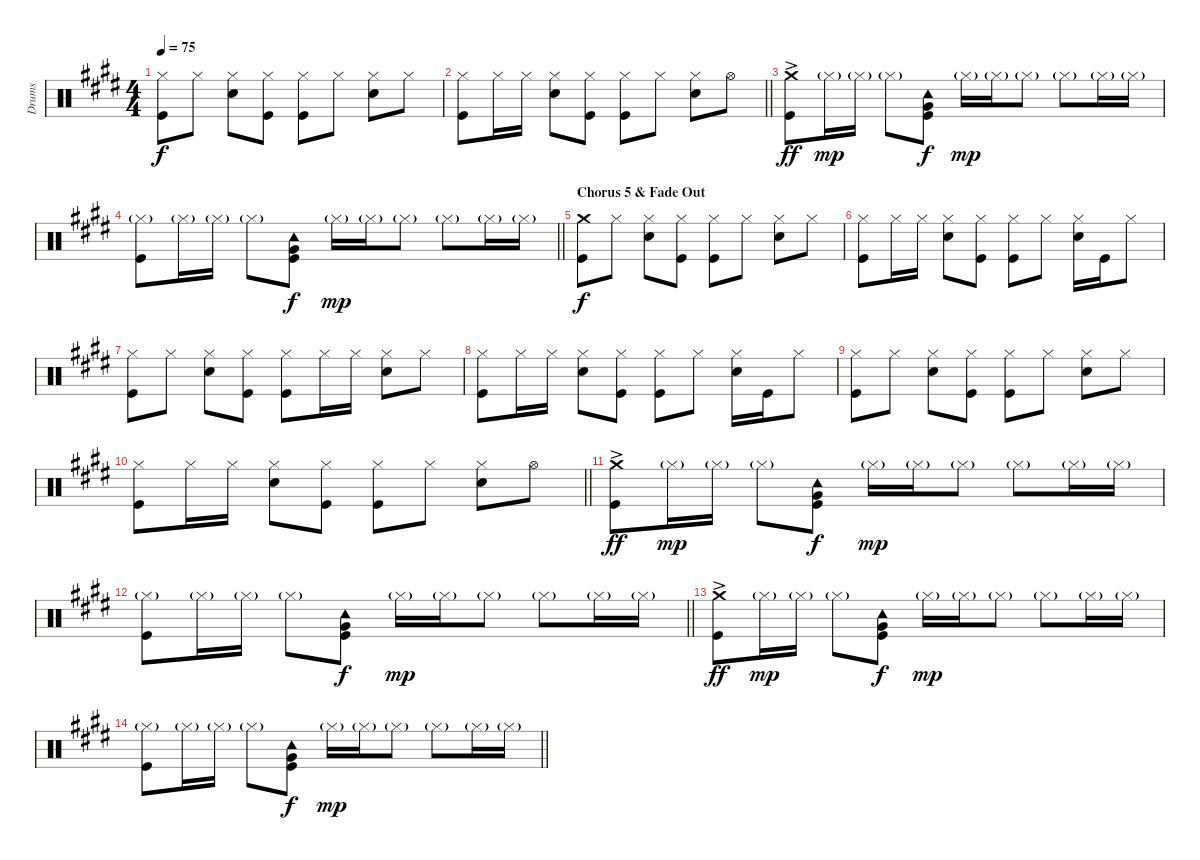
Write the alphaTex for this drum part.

\track ("Drums" "Drums") {instrument percussion}
\staff {score}
\articulation defaults
\ts (4 4)
\tempo 75
\clef neutral
\ks e
("Hi-Hat (closed)" "Kick (hit)").8{dy f} "Hi-Hat (closed)".8 ("Hi-Hat (closed)" "Electric Snare (hit)").8 ("Hi-Hat (closed)" "Kick (hit)").8 ("Hi-Hat (closed)" "Kick (hit)").8 "Hi-Hat (closed)".8 ("Hi-Hat (closed)" "Electric Snare (hit)").8 "Hi-Hat (closed)".8 |
\barLineRight lightlight
("Hi-Hat (closed)" "Kick (hit)").8 "Hi-Hat (closed)".16 "Hi-Hat (closed)".16 ("Hi-Hat (closed)" "Electric Snare (hit)").8 ("Hi-Hat (closed)" "Kick (hit)").8 ("Hi-Hat (closed)" "Kick (hit)").8 "Hi-Hat (closed)".8 ("Hi-Hat (closed)" "Electric Snare (hit)").8 "Hi-Hat (open)".8 |
("Crash medium (hit)"{ac} "Kick (hit)").8{dy ff} "Hi-Hat (closed)"{g}.16{dy mp} "Hi-Hat (closed)"{g}.16 "Hi-Hat (closed)"{g}.8 ("Tambourine (hit)" "Very Low Tom (hit)" "Kick (hit)").8{dy f} "Hi-Hat (closed)"{g}.16{dy mp} "Hi-Hat (closed)"{g}.16 "Hi-Hat (closed)"{g}.8 "Hi-Hat (closed)"{g}.8 "Hi-Hat (closed)"{g}.16 "Hi-Hat (closed)"{g}.16 |
\barLineRight lightlight
("Hi-Hat (closed)"{g} "Kick (hit)").8 "Hi-Hat (closed)"{g}.16 "Hi-Hat (closed)"{g}.16 "Hi-Hat (closed)"{g}.8 ("Tambourine (hit)" "Very Low Tom (hit)" "Kick (hit)").8{dy f} "Hi-Hat (closed)"{g}.16{dy mp} "Hi-Hat (closed)"{g}.16 "Hi-Hat (closed)"{g}.8 "Hi-Hat (closed)"{g}.8 "Hi-Hat (closed)"{g}.16 "Hi-Hat (closed)"{g}.16 |
\section ("" "Chorus 5 & Fade Out")
("Crash medium (hit)" "Kick (hit)").8{dy f} "Hi-Hat (closed)".8 ("Hi-Hat (closed)" "Electric Snare (hit)").8 ("Hi-Hat (closed)" "Kick (hit)").8 ("Hi-Hat (closed)" "Kick (hit)").8 "Hi-Hat (closed)".8 ("Hi-Hat (closed)" "Electric Snare (hit)").8 "Hi-Hat (closed)".8 |
("Hi-Hat (closed)" "Kick (hit)").8 "Hi-Hat (closed)".16 "Hi-Hat (closed)".16 ("Hi-Hat (closed)" "Electric Snare (hit)").8 ("Hi-Hat (closed)" "Kick (hit)").8 ("Hi-Hat (closed)" "Kick (hit)").8 "Hi-Hat (closed)".8 ("Hi-Hat (closed)" "Electric Snare (hit)").16 "Kick (hit)".16 "Hi-Hat (closed)".8 |
("Hi-Hat (closed)" "Kick (hit)").8 "Hi-Hat (closed)".8 ("Hi-Hat (closed)" "Electric Snare (hit)").8 ("Hi-Hat (closed)" "Kick (hit)").8 ("Hi-Hat (closed)" "Kick (hit)").8 "Hi-Hat (closed)".16 "Hi-Hat (closed)".16 ("Hi-Hat (closed)" "Electric Snare (hit)").8 "Hi-Hat (closed)".8 |
("Hi-Hat (closed)" "Kick (hit)").8 "Hi-Hat (closed)".16 "Hi-Hat (closed)".16 ("Hi-Hat (closed)" "Electric Snare (hit)").8 ("Hi-Hat (closed)" "Kick (hit)").8 ("Hi-Hat (closed)" "Kick (hit)").8 "Hi-Hat (closed)".8 ("Hi-Hat (closed)" "Electric Snare (hit)").16 "Kick (hit)".16 "Hi-Hat (closed)".8 |
("Hi-Hat (closed)" "Kick (hit)").8 "Hi-Hat (closed)".8 ("Hi-Hat (closed)" "Electric Snare (hit)").8 ("Hi-Hat (closed)" "Kick (hit)").8 ("Hi-Hat (closed)" "Kick (hit)").8 "Hi-Hat (closed)".8 ("Hi-Hat (closed)" "Electric Snare (hit)").8 "Hi-Hat (closed)".8 |
\barLineRight lightlight
("Hi-Hat (closed)" "Kick (hit)").8 "Hi-Hat (closed)".16 "Hi-Hat (closed)".16 ("Hi-Hat (closed)" "Electric Snare (hit)").8 ("Hi-Hat (closed)" "Kick (hit)").8 ("Hi-Hat (closed)" "Kick (hit)").8 "Hi-Hat (closed)".8 ("Hi-Hat (closed)" "Electric Snare (hit)").8 "Hi-Hat (open)".8 |
("Crash medium (hit)"{ac} "Kick (hit)").8{dy ff} "Hi-Hat (closed)"{g}.16{dy mp} "Hi-Hat (closed)"{g}.16 "Hi-Hat (closed)"{g}.8 ("Tambourine (hit)" "Very Low Tom (hit)" "Kick (hit)").8{dy f} "Hi-Hat (closed)"{g}.16{dy mp} "Hi-Hat (closed)"{g}.16 "Hi-Hat (closed)"{g}.8 "Hi-Hat (closed)"{g}.8 "Hi-Hat (closed)"{g}.16 "Hi-Hat (closed)"{g}.16 |
\barLineRight lightlight
("Hi-Hat (closed)"{g} "Kick (hit)").8 "Hi-Hat (closed)"{g}.16 "Hi-Hat (closed)"{g}.16 "Hi-Hat (closed)"{g}.8 ("Tambourine (hit)" "Very Low Tom (hit)" "Kick (hit)").8{dy f} "Hi-Hat (closed)"{g}.16{dy mp} "Hi-Hat (closed)"{g}.16 "Hi-Hat (closed)"{g}.8 "Hi-Hat (closed)"{g}.8 "Hi-Hat (closed)"{g}.16 "Hi-Hat (closed)"{g}.16 |
("Crash medium (hit)"{ac} "Kick (hit)").8{dy ff} "Hi-Hat (closed)"{g}.16{dy mp} "Hi-Hat (closed)"{g}.16 "Hi-Hat (closed)"{g}.8 ("Tambourine (hit)" "Very Low Tom (hit)" "Kick (hit)").8{dy f} "Hi-Hat (closed)"{g}.16{dy mp} "Hi-Hat (closed)"{g}.16 "Hi-Hat (closed)"{g}.8 "Hi-Hat (closed)"{g}.8 "Hi-Hat (closed)"{g}.16 "Hi-Hat (closed)"{g}.16 |
\barLineRight lightlight
("Hi-Hat (closed)"{g} "Kick (hit)").8 "Hi-Hat (closed)"{g}.16 "Hi-Hat (closed)"{g}.16 "Hi-Hat (closed)"{g}.8 ("Tambourine (hit)" "Very Low Tom (hit)" "Kick (hit)").8{dy f} "Hi-Hat (closed)"{g}.16{dy mp} "Hi-Hat (closed)"{g}.16 "Hi-Hat (closed)"{g}.8 "Hi-Hat (closed)"{g}.8 "Hi-Hat (closed)"{g}.16 "Hi-Hat (closed)"{g}.16
